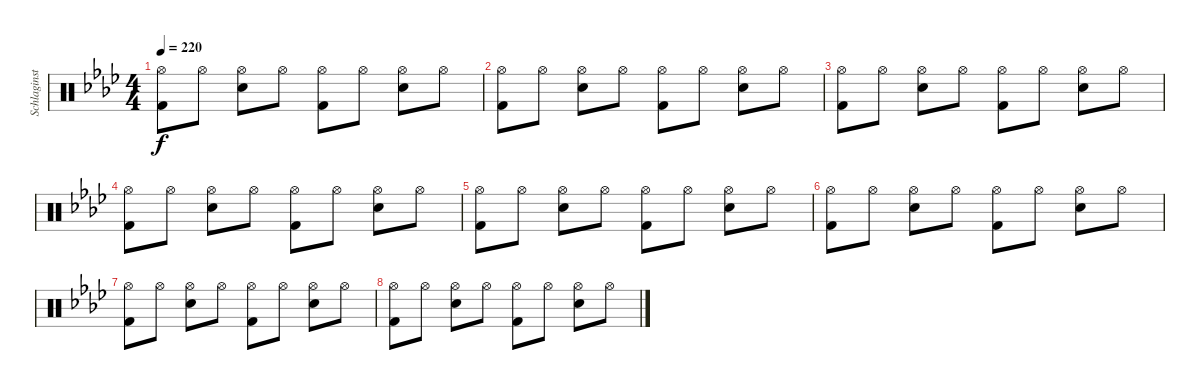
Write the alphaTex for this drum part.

\track ("Schlaginstrumente - Auswahl" "Schlaginst") {instrument percussion}
\staff {score}
\articulation defaults
\ts (4 4)
\tempo 220
\clef neutral
\ks fminor
("Hi-Hat (open)" "Kick (hit) 2").8{dy f} "Hi-Hat (open)".8 ("Hi-Hat (open)" "Snare (hit) 2").8 "Hi-Hat (open)".8 ("Hi-Hat (open)" "Kick (hit) 2").8 "Hi-Hat (open)".8 ("Hi-Hat (open)" "Snare (hit) 2").8 "Hi-Hat (open)".8 |
("Hi-Hat (open)" "Kick (hit) 2").8 "Hi-Hat (open)".8 ("Hi-Hat (open)" "Snare (hit) 2").8 "Hi-Hat (open)".8 ("Hi-Hat (open)" "Kick (hit) 2").8 "Hi-Hat (open)".8 ("Hi-Hat (open)" "Snare (hit) 2").8 "Hi-Hat (open)".8 |
("Hi-Hat (open)" "Kick (hit) 2").8 "Hi-Hat (open)".8 ("Hi-Hat (open)" "Snare (hit) 2").8 "Hi-Hat (open)".8 ("Hi-Hat (open)" "Kick (hit) 2").8 "Hi-Hat (open)".8 ("Hi-Hat (open)" "Snare (hit) 2").8 "Hi-Hat (open)".8 |
("Hi-Hat (open)" "Kick (hit) 2").8 "Hi-Hat (open)".8 ("Hi-Hat (open)" "Snare (hit) 2").8 "Hi-Hat (open)".8 ("Hi-Hat (open)" "Kick (hit) 2").8 "Hi-Hat (open)".8 ("Hi-Hat (open)" "Snare (hit) 2").8 "Hi-Hat (open)".8 |
("Hi-Hat (open)" "Kick (hit) 2").8 "Hi-Hat (open)".8 ("Hi-Hat (open)" "Snare (hit) 2").8 "Hi-Hat (open)".8 ("Hi-Hat (open)" "Kick (hit) 2").8 "Hi-Hat (open)".8 ("Hi-Hat (open)" "Snare (hit) 2").8 "Hi-Hat (open)".8 |
("Hi-Hat (open)" "Kick (hit) 2").8 "Hi-Hat (open)".8 ("Hi-Hat (open)" "Snare (hit) 2").8 "Hi-Hat (open)".8 ("Hi-Hat (open)" "Kick (hit) 2").8 "Hi-Hat (open)".8 ("Hi-Hat (open)" "Snare (hit) 2").8 "Hi-Hat (open)".8 |
("Hi-Hat (open)" "Kick (hit) 2").8 "Hi-Hat (open)".8 ("Hi-Hat (open)" "Snare (hit) 2").8 "Hi-Hat (open)".8 ("Hi-Hat (open)" "Kick (hit) 2").8 "Hi-Hat (open)".8 ("Hi-Hat (open)" "Snare (hit) 2").8 "Hi-Hat (open)".8 |
("Hi-Hat (open)" "Kick (hit) 2").8 "Hi-Hat (open)".8 ("Hi-Hat (open)" "Snare (hit) 2").8 "Hi-Hat (open)".8 ("Hi-Hat (open)" "Kick (hit) 2").8 "Hi-Hat (open)".8 ("Hi-Hat (open)" "Snare (hit) 2").8 "Hi-Hat (open)".8
